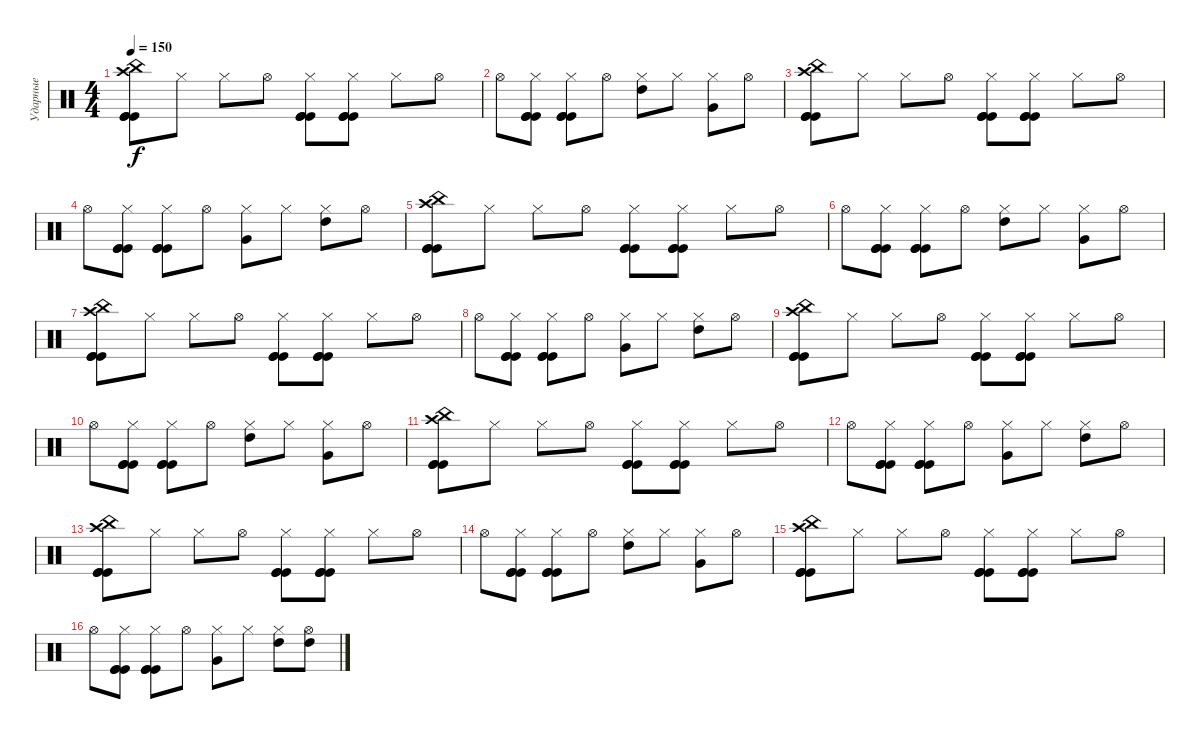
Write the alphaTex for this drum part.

\track ("Ударные" "Ударные") {instrument percussion}
\staff {score}
\articulation defaults
\ts (4 4)
\tempo 150
\clef neutral
\ks c
("Crash high (hit)" "China (hit)" "Kick (hit)" "Kick (hit)" "Kick (hit)").8{dy f} "Hi-Hat (closed)".8 "Hi-Hat (closed)".8 "Hi-Hat (open)".8 ("Hi-Hat (closed)" "Kick (hit)" "Kick (hit)" "Kick (hit)").8 ("Hi-Hat (closed)" "Kick (hit)" "Kick (hit)" "Kick (hit)").8 "Hi-Hat (closed)".8 "Hi-Hat (open)".8 |
"Hi-Hat (open)".8 ("Hi-Hat (closed)" "Kick (hit)" "Kick (hit)" "Kick (hit)").8 ("Hi-Hat (closed)" "Kick (hit)" "Kick (hit)" "Kick (hit)").8 "Hi-Hat (open)".8 ("Hi-Hat (closed)" "High Tom (hit)").8 "Hi-Hat (closed)".8 ("Hi-Hat (closed)" "Very Low Tom (hit)").8 "Hi-Hat (open)".8 |
("Crash high (hit)" "China (hit)" "Kick (hit)" "Kick (hit)" "Kick (hit)").8 "Hi-Hat (closed)".8 "Hi-Hat (closed)".8 "Hi-Hat (open)".8 ("Hi-Hat (closed)" "Kick (hit)" "Kick (hit)" "Kick (hit)").8 ("Hi-Hat (closed)" "Kick (hit)" "Kick (hit)" "Kick (hit)").8 "Hi-Hat (closed)".8 "Hi-Hat (open)".8 |
"Hi-Hat (open)".8 ("Hi-Hat (closed)" "Kick (hit)" "Kick (hit)" "Kick (hit)").8 ("Hi-Hat (closed)" "Kick (hit)" "Kick (hit)" "Kick (hit)").8 "Hi-Hat (open)".8 ("Hi-Hat (closed)" "Very Low Tom (hit)").8 "Hi-Hat (closed)".8 ("Hi-Hat (closed)" "High Tom (hit)").8 "Hi-Hat (open)".8 |
("Crash high (hit)" "China (hit)" "Kick (hit)" "Kick (hit)" "Kick (hit)").8 "Hi-Hat (closed)".8 "Hi-Hat (closed)".8 "Hi-Hat (open)".8 ("Hi-Hat (closed)" "Kick (hit)" "Kick (hit)" "Kick (hit)").8 ("Hi-Hat (closed)" "Kick (hit)" "Kick (hit)" "Kick (hit)").8 "Hi-Hat (closed)".8 "Hi-Hat (open)".8 |
"Hi-Hat (open)".8 ("Hi-Hat (closed)" "Kick (hit)" "Kick (hit)" "Kick (hit)").8 ("Hi-Hat (closed)" "Kick (hit)" "Kick (hit)" "Kick (hit)").8 "Hi-Hat (open)".8 ("Hi-Hat (closed)" "High Tom (hit)").8 "Hi-Hat (closed)".8 ("Hi-Hat (closed)" "Very Low Tom (hit)").8 "Hi-Hat (open)".8 |
("Crash high (hit)" "China (hit)" "Kick (hit)" "Kick (hit)" "Kick (hit)").8 "Hi-Hat (closed)".8 "Hi-Hat (closed)".8 "Hi-Hat (open)".8 ("Hi-Hat (closed)" "Kick (hit)" "Kick (hit)" "Kick (hit)").8 ("Hi-Hat (closed)" "Kick (hit)" "Kick (hit)" "Kick (hit)").8 "Hi-Hat (closed)".8 "Hi-Hat (open)".8 |
"Hi-Hat (open)".8 ("Hi-Hat (closed)" "Kick (hit)" "Kick (hit)" "Kick (hit)").8 ("Hi-Hat (closed)" "Kick (hit)" "Kick (hit)" "Kick (hit)").8 "Hi-Hat (open)".8 ("Hi-Hat (closed)" "Very Low Tom (hit)").8 "Hi-Hat (closed)".8 ("Hi-Hat (closed)" "High Tom (hit)").8 "Hi-Hat (open)".8 |
("Crash high (hit)" "China (hit)" "Kick (hit)" "Kick (hit)" "Kick (hit)").8 "Hi-Hat (closed)".8 "Hi-Hat (closed)".8 "Hi-Hat (open)".8 ("Hi-Hat (closed)" "Kick (hit)" "Kick (hit)" "Kick (hit)").8 ("Hi-Hat (closed)" "Kick (hit)" "Kick (hit)" "Kick (hit)").8 "Hi-Hat (closed)".8 "Hi-Hat (open)".8 |
"Hi-Hat (open)".8 ("Hi-Hat (closed)" "Kick (hit)" "Kick (hit)" "Kick (hit)").8 ("Hi-Hat (closed)" "Kick (hit)" "Kick (hit)" "Kick (hit)").8 "Hi-Hat (open)".8 ("Hi-Hat (closed)" "High Tom (hit)").8 "Hi-Hat (closed)".8 ("Hi-Hat (closed)" "Very Low Tom (hit)").8 "Hi-Hat (open)".8 |
("Crash high (hit)" "China (hit)" "Kick (hit)" "Kick (hit)" "Kick (hit)").8 "Hi-Hat (closed)".8 "Hi-Hat (closed)".8 "Hi-Hat (open)".8 ("Hi-Hat (closed)" "Kick (hit)" "Kick (hit)" "Kick (hit)").8 ("Hi-Hat (closed)" "Kick (hit)" "Kick (hit)" "Kick (hit)").8 "Hi-Hat (closed)".8 "Hi-Hat (open)".8 |
"Hi-Hat (open)".8 ("Hi-Hat (closed)" "Kick (hit)" "Kick (hit)" "Kick (hit)").8 ("Hi-Hat (closed)" "Kick (hit)" "Kick (hit)" "Kick (hit)").8 "Hi-Hat (open)".8 ("Hi-Hat (closed)" "Very Low Tom (hit)").8 "Hi-Hat (closed)".8 ("Hi-Hat (closed)" "High Tom (hit)").8 "Hi-Hat (open)".8 |
("Crash high (hit)" "China (hit)" "Kick (hit)" "Kick (hit)" "Kick (hit)").8 "Hi-Hat (closed)".8 "Hi-Hat (closed)".8 "Hi-Hat (open)".8 ("Hi-Hat (closed)" "Kick (hit)" "Kick (hit)" "Kick (hit)").8 ("Hi-Hat (closed)" "Kick (hit)" "Kick (hit)" "Kick (hit)").8 "Hi-Hat (closed)".8 "Hi-Hat (open)".8 |
"Hi-Hat (open)".8 ("Hi-Hat (closed)" "Kick (hit)" "Kick (hit)" "Kick (hit)").8 ("Hi-Hat (closed)" "Kick (hit)" "Kick (hit)" "Kick (hit)").8 "Hi-Hat (open)".8 ("Hi-Hat (closed)" "High Tom (hit)").8 "Hi-Hat (closed)".8 ("Hi-Hat (closed)" "Very Low Tom (hit)").8 "Hi-Hat (open)".8 |
("Crash high (hit)" "China (hit)" "Kick (hit)" "Kick (hit)" "Kick (hit)").8 "Hi-Hat (closed)".8 "Hi-Hat (closed)".8 "Hi-Hat (open)".8 ("Hi-Hat (closed)" "Kick (hit)" "Kick (hit)" "Kick (hit)").8 ("Hi-Hat (closed)" "Kick (hit)" "Kick (hit)" "Kick (hit)").8 "Hi-Hat (closed)".8 "Hi-Hat (open)".8 |
"Hi-Hat (open)".8 ("Hi-Hat (closed)" "Kick (hit)" "Kick (hit)" "Kick (hit)").8 ("Hi-Hat (closed)" "Kick (hit)" "Kick (hit)" "Kick (hit)").8 "Hi-Hat (open)".8 ("Hi-Hat (closed)" "Very Low Tom (hit)").8 "Hi-Hat (closed)".8 ("Hi-Hat (closed)" "High Tom (hit)").8 ("Hi-Hat (open)" "High Tom (hit)").8
